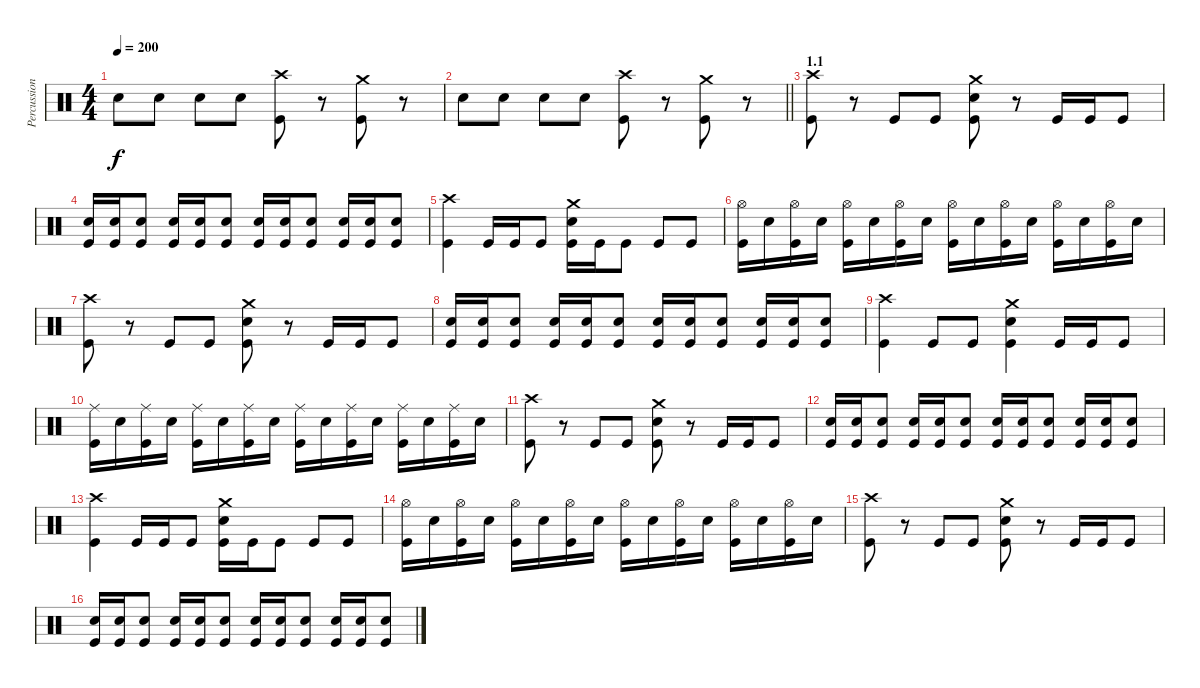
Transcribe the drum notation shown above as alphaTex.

\track ("Percussion" "Percussion") {instrument percussion}
\staff {score}
\articulation defaults
\ts (4 4)
\tempo 200
\clef neutral
\ks c "Snare (hit) 2".8{dy f} "Snare (hit) 2".8 "Snare (hit) 2".8 "Snare (hit) 2".8
("Crash high (hit)" "Kick (hit)").8 r.8 ("Crash medium (hit)" "Kick (hit)").8 r.8 |
\barLineRight lightlight "Snare (hit) 2".8 "Snare (hit) 2".8 "Snare (hit) 2".8 "Snare (hit) 2".8
("Crash high (hit)" "Kick (hit)").8 r.8 ("Crash medium (hit)" "Kick (hit)").8 r.8 |
\section ("" "1.1")
("Crash high (hit)" "Kick (hit)").8 r.8 "Kick (hit)".8 "Kick (hit)".8 ("Crash medium (hit)" "Snare (hit) 2" "Kick (hit)").8 r.8 "Kick (hit)".16 "Kick (hit)".16 "Kick (hit)".8 |
("Snare (hit) 2" "Kick (hit)").16 ("Snare (hit) 2" "Kick (hit)").16 ("Snare (hit) 2" "Kick (hit)").8 ("Snare (hit) 2" "Kick (hit)").16 ("Snare (hit) 2" "Kick (hit)").16 ("Snare (hit) 2" "Kick (hit)").8 ("Snare (hit) 2" "Kick (hit)").16 ("Snare (hit) 2" "Kick (hit)").16 ("Snare (hit) 2" "Kick (hit)").8 ("Snare (hit) 2" "Kick (hit)").16 ("Snare (hit) 2" "Kick (hit)").16 ("Snare (hit) 2" "Kick (hit)").8 |
("Crash high (hit)" "Kick (hit)").4 "Kick (hit)".16 "Kick (hit)".16 "Kick (hit)".8 ("Crash medium (hit)" "Snare (hit) 2" "Kick (hit)").16 "Kick (hit)".16 "Kick (hit)".8 "Kick (hit)".8 "Kick (hit)".8 |
("Hi-Hat (open)" "Kick (hit)").16 "Snare (hit) 2".16 ("Hi-Hat (open)" "Kick (hit)").16 "Snare (hit) 2".16 ("Hi-Hat (open)" "Kick (hit)").16 "Snare (hit) 2".16 ("Hi-Hat (open)" "Kick (hit)").16 "Snare (hit) 2".16 ("Hi-Hat (open)" "Kick (hit)").16 "Snare (hit) 2".16 ("Hi-Hat (open)" "Kick (hit)").16 "Snare (hit) 2".16 ("Hi-Hat (open)" "Kick (hit)").16 "Snare (hit) 2".16 ("Hi-Hat (open)" "Kick (hit)").16 "Snare (hit) 2".16 |
("Crash high (hit)" "Kick (hit)").8 r.8 "Kick (hit)".8 "Kick (hit)".8 ("Crash medium (hit)" "Snare (hit) 2" "Kick (hit)").8 r.8 "Kick (hit)".16 "Kick (hit)".16 "Kick (hit)".8 |
("Snare (hit) 2" "Kick (hit)").16 ("Snare (hit) 2" "Kick (hit)").16 ("Snare (hit) 2" "Kick (hit)").8 ("Snare (hit) 2" "Kick (hit)").16 ("Snare (hit) 2" "Kick (hit)").16 ("Snare (hit) 2" "Kick (hit)").8 ("Snare (hit) 2" "Kick (hit)").16 ("Snare (hit) 2" "Kick (hit)").16 ("Snare (hit) 2" "Kick (hit)").8 ("Snare (hit) 2" "Kick (hit)").16 ("Snare (hit) 2" "Kick (hit)").16 ("Snare (hit) 2" "Kick (hit)").8 |
("Crash high (hit)" "Kick (hit)").4 "Kick (hit)".8 "Kick (hit)".8 ("Crash medium (hit)" "Snare (hit) 2" "Kick (hit)").4 "Kick (hit)".16 "Kick (hit)".16 "Kick (hit)".8 |
("Ride (middle)" "Kick (hit)").16 "Snare (hit) 2".16 ("Ride (middle)" "Kick (hit)").16 "Snare (hit) 2".16 ("Ride (middle)" "Kick (hit)").16 "Snare (hit) 2".16 ("Ride (middle)" "Kick (hit)").16 "Snare (hit) 2".16 ("Ride (middle)" "Kick (hit)").16 "Snare (hit) 2".16 ("Ride (middle)" "Kick (hit)").16 "Snare (hit) 2".16 ("Ride (middle)" "Kick (hit)").16 "Snare (hit) 2".16 ("Ride (middle)" "Kick (hit)").16 "Snare (hit) 2".16 |
("Crash high (hit)" "Kick (hit)").8 r.8 "Kick (hit)".8 "Kick (hit)".8 ("Crash medium (hit)" "Snare (hit) 2" "Kick (hit)").8 r.8 "Kick (hit)".16 "Kick (hit)".16 "Kick (hit)".8 |
("Snare (hit) 2" "Kick (hit)").16 ("Snare (hit) 2" "Kick (hit)").16 ("Snare (hit) 2" "Kick (hit)").8 ("Snare (hit) 2" "Kick (hit)").16 ("Snare (hit) 2" "Kick (hit)").16 ("Snare (hit) 2" "Kick (hit)").8 ("Snare (hit) 2" "Kick (hit)").16 ("Snare (hit) 2" "Kick (hit)").16 ("Snare (hit) 2" "Kick (hit)").8 ("Snare (hit) 2" "Kick (hit)").16 ("Snare (hit) 2" "Kick (hit)").16 ("Snare (hit) 2" "Kick (hit)").8 |
("Crash high (hit)" "Kick (hit)").4 "Kick (hit)".16 "Kick (hit)".16 "Kick (hit)".8 ("Crash medium (hit)" "Snare (hit) 2" "Kick (hit)").16 "Kick (hit)".16 "Kick (hit)".8 "Kick (hit)".8 "Kick (hit)".8 |
("Hi-Hat (open)" "Kick (hit)").16 "Snare (hit) 2".16 ("Hi-Hat (open)" "Kick (hit)").16 "Snare (hit) 2".16 ("Hi-Hat (open)" "Kick (hit)").16 "Snare (hit) 2".16 ("Hi-Hat (open)" "Kick (hit)").16 "Snare (hit) 2".16 ("Hi-Hat (open)" "Kick (hit)").16 "Snare (hit) 2".16 ("Hi-Hat (open)" "Kick (hit)").16 "Snare (hit) 2".16 ("Hi-Hat (open)" "Kick (hit)").16 "Snare (hit) 2".16 ("Hi-Hat (open)" "Kick (hit)").16 "Snare (hit) 2".16 |
("Crash high (hit)" "Kick (hit)").8 r.8 "Kick (hit)".8 "Kick (hit)".8 ("Crash medium (hit)" "Snare (hit) 2" "Kick (hit)").8 r.8 "Kick (hit)".16 "Kick (hit)".16 "Kick (hit)".8 |
("Snare (hit) 2" "Kick (hit)").16 ("Snare (hit) 2" "Kick (hit)").16 ("Snare (hit) 2" "Kick (hit)").8 ("Snare (hit) 2" "Kick (hit)").16 ("Snare (hit) 2" "Kick (hit)").16 ("Snare (hit) 2" "Kick (hit)").8 ("Snare (hit) 2" "Kick (hit)").16 ("Snare (hit) 2" "Kick (hit)").16 ("Snare (hit) 2" "Kick (hit)").8 ("Snare (hit) 2" "Kick (hit)").16 ("Snare (hit) 2" "Kick (hit)").16 ("Snare (hit) 2" "Kick (hit)").8
